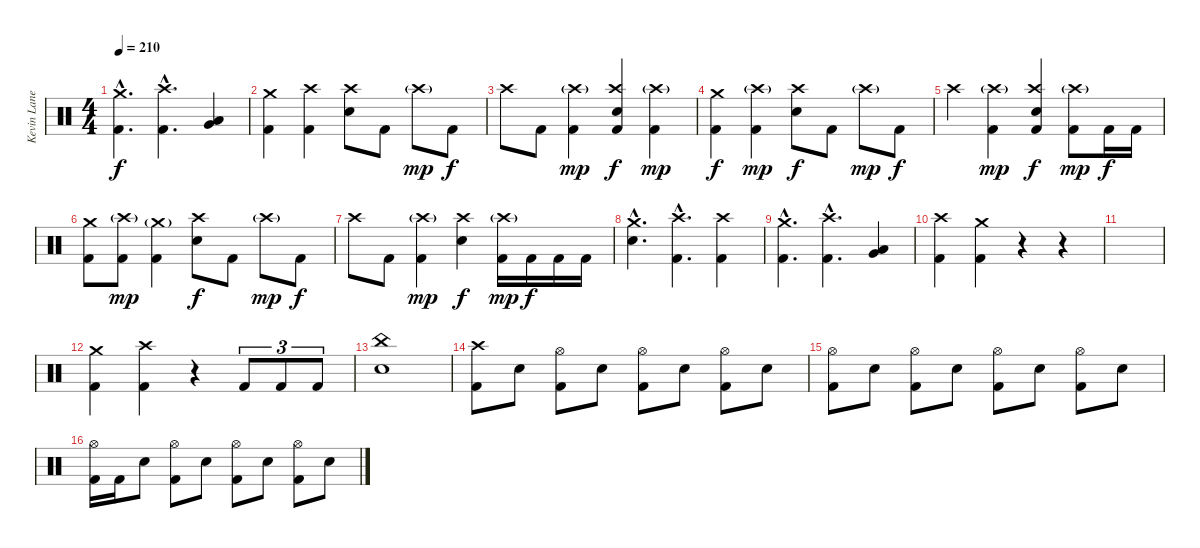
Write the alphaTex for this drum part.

\track ("Kevin Lane (Drums)" "Kevin Lane") {instrument percussion}
\staff {score}
\articulation defaults
\ts (4 4)
\tempo 210
\clef neutral
\ks c
("Crash medium (hit)"{hac} "Kick (hit) 2"{hac}).4{d dy f} ("Crash high (hit)"{hac} "Kick (hit) 2"{hac}).4{d} ("Low Floor Tom (hit)" "Very Low Tom (hit)").4 |
("Crash medium (hit)" "Kick (hit) 2").4 ("Crash high (hit)" "Kick (hit) 2").4 ("Crash high (hit)" "Snare (hit) 2").8 "Kick (hit) 2".8 "Crash high (hit)"{g}.8{dy mp} "Kick (hit) 2".8{dy f} |
"Crash high (hit)".8 "Kick (hit) 2".8 ("Crash high (hit)"{g} "Kick (hit) 2").4{dy mp} ("Snare (hit) 2" "Crash high (hit)" "Kick (hit) 2").4{dy f} ("Crash high (hit)"{g} "Kick (hit) 2").4{dy mp} |
("Crash medium (hit)" "Kick (hit) 2").4{dy f} ("Crash high (hit)"{g} "Kick (hit) 2").4{dy mp} ("Crash high (hit)" "Snare (hit) 2").8{dy f} "Kick (hit) 2".8 "Crash high (hit)"{g}.8{dy mp} "Kick (hit) 2".8{dy f} |
"Crash high (hit)".4 ("Crash high (hit)"{g} "Kick (hit) 2").4{dy mp} ("Snare (hit) 2" "Crash high (hit)" "Kick (hit) 2").4{dy f} ("Crash high (hit)"{g} "Kick (hit) 2").8{dy mp} "Kick (hit) 2".16{dy f} "Kick (hit) 2".16 |
("Crash medium (hit)" "Kick (hit) 2").8 ("Crash high (hit)"{g} "Kick (hit) 2").8{dy mp} ("Crash medium (hit)"{g} "Kick (hit) 2").4 ("Crash high (hit)" "Snare (hit) 2").8{dy f} "Kick (hit) 2".8 "Crash high (hit)"{g}.8{dy mp} "Kick (hit) 2".8{dy f} |
"Crash high (hit)".8 "Kick (hit) 2".8 ("Crash high (hit)"{g} "Kick (hit) 2").4{dy mp} ("Crash high (hit)" "Snare (hit) 2").4{dy f} ("Crash high (hit)"{g} "Kick (hit) 2").16{dy mp} "Kick (hit) 2".16{dy f} "Kick (hit) 2".16 "Kick (hit) 2".16 |
("Crash medium (hit)"{hac} "Snare (hit) 2"{hac}).4{d} ("Crash high (hit)"{hac} "Kick (hit) 2"{hac}).4{d} ("Crash high (hit)" "Kick (hit) 2").4 |
("Crash medium (hit)"{hac} "Kick (hit) 2"{hac}).4{d} ("Crash high (hit)"{hac} "Kick (hit) 2"{hac}).4{d} ("Low Floor Tom (hit)" "Very Low Tom (hit)").4 |
("Crash high (hit)" "Kick (hit) 2").4 ("Crash medium (hit)" "Kick (hit) 2").4 r.4 r.4 |
|
("Crash medium (hit)" "Kick (hit) 2").4 ("Crash high (hit)" "Kick (hit) 2").4 r.4 "Kick (hit) 2".8{tu (3 2)} "Kick (hit) 2".8{tu (3 2)} "Kick (hit) 2".8{tu (3 2)} |
("China (hit)" "Snare (hit) 2").1 |
("Crash high (hit)" "Kick (hit) 2").8 "Snare (hit) 2".8 ("Hi-Hat (open)" "Kick (hit) 2").8 "Snare (hit) 2".8 ("Hi-Hat (open)" "Kick (hit) 2").8 "Snare (hit) 2".8 ("Hi-Hat (open)" "Kick (hit) 2").8 "Snare (hit) 2".8 |
("Hi-Hat (open)" "Kick (hit) 2").8 "Snare (hit) 2".8 ("Hi-Hat (open)" "Kick (hit) 2").8 "Snare (hit) 2".8 ("Hi-Hat (open)" "Kick (hit) 2").8 "Snare (hit) 2".8 ("Hi-Hat (open)" "Kick (hit) 2").8 "Snare (hit) 2".8 |
("Hi-Hat (open)" "Kick (hit) 2").16 "Kick (hit) 2".16 "Snare (hit) 2".8 ("Hi-Hat (open)" "Kick (hit) 2").8 "Snare (hit) 2".8 ("Hi-Hat (open)" "Kick (hit) 2").8 "Snare (hit) 2".8 ("Hi-Hat (open)" "Kick (hit) 2").8 "Snare (hit) 2".8
